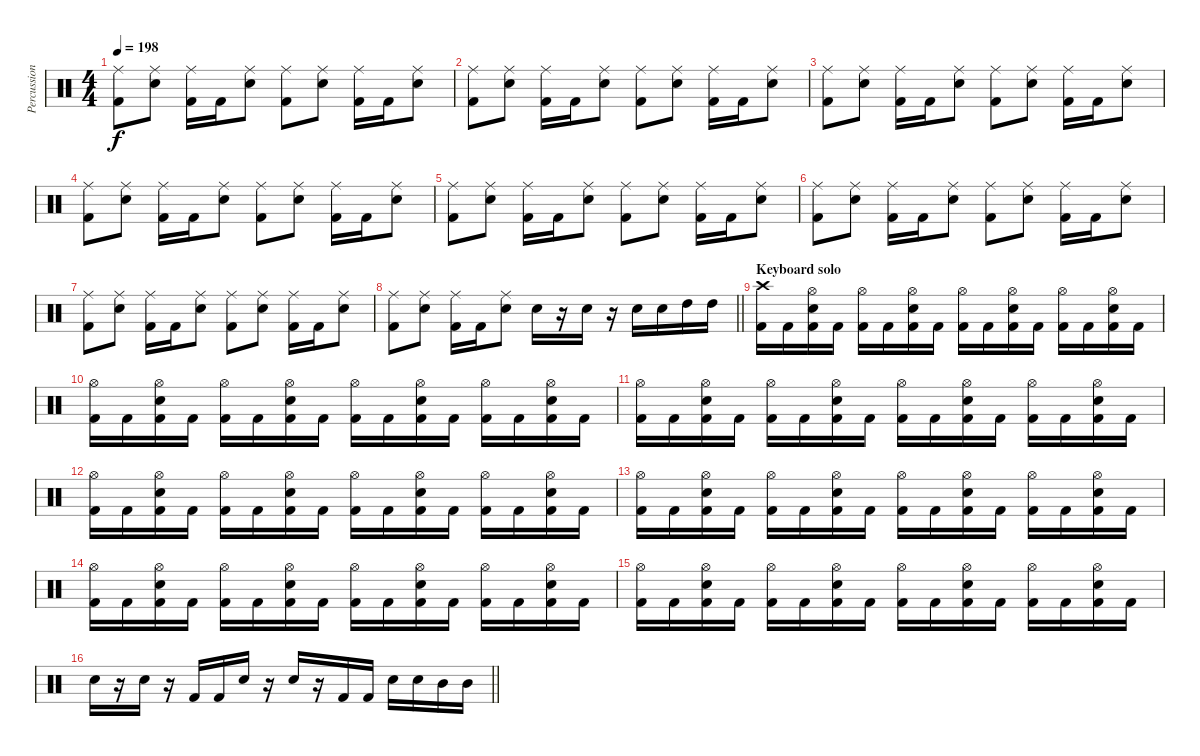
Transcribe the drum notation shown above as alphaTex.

\track ("Percussion" "Percussion") {instrument percussion}
\staff {score}
\articulation defaults
\ts (4 4)
\tempo 198
\clef neutral
\ks c
("Ride (middle)" "Kick (hit) 2").8{dy f} ("Ride (middle)" "Electric Snare (hit)").8 ("Ride (middle)" "Kick (hit) 2").16 "Kick (hit) 2".16 ("Ride (middle)" "Electric Snare (hit)").8 ("Ride (middle)" "Kick (hit) 2").8 ("Ride (middle)" "Electric Snare (hit)").8 ("Ride (middle)" "Kick (hit) 2").16 "Kick (hit) 2".16 ("Ride (middle)" "Electric Snare (hit)").8 |
("Ride (middle)" "Kick (hit) 2").8 ("Ride (middle)" "Electric Snare (hit)").8 ("Ride (middle)" "Kick (hit) 2").16 "Kick (hit) 2".16 ("Ride (middle)" "Electric Snare (hit)").8 ("Ride (middle)" "Kick (hit) 2").8 ("Ride (middle)" "Electric Snare (hit)").8 ("Ride (middle)" "Kick (hit) 2").16 "Kick (hit) 2".16 ("Ride (middle)" "Electric Snare (hit)").8 |
("Ride (middle)" "Kick (hit) 2").8 ("Ride (middle)" "Electric Snare (hit)").8 ("Ride (middle)" "Kick (hit) 2").16 "Kick (hit) 2".16 ("Ride (middle)" "Electric Snare (hit)").8 ("Ride (middle)" "Kick (hit) 2").8 ("Ride (middle)" "Electric Snare (hit)").8 ("Ride (middle)" "Kick (hit) 2").16 "Kick (hit) 2".16 ("Ride (middle)" "Electric Snare (hit)").8 |
("Ride (middle)" "Kick (hit) 2").8 ("Ride (middle)" "Electric Snare (hit)").8 ("Ride (middle)" "Kick (hit) 2").16 "Kick (hit) 2".16 ("Ride (middle)" "Electric Snare (hit)").8 ("Ride (middle)" "Kick (hit) 2").8 ("Ride (middle)" "Electric Snare (hit)").8 ("Ride (middle)" "Kick (hit) 2").16 "Kick (hit) 2".16 ("Ride (middle)" "Electric Snare (hit)").8 |
("Ride (middle)" "Kick (hit) 2").8 ("Ride (middle)" "Electric Snare (hit)").8 ("Ride (middle)" "Kick (hit) 2").16 "Kick (hit) 2".16 ("Ride (middle)" "Electric Snare (hit)").8 ("Ride (middle)" "Kick (hit) 2").8 ("Ride (middle)" "Electric Snare (hit)").8 ("Ride (middle)" "Kick (hit) 2").16 "Kick (hit) 2".16 ("Ride (middle)" "Electric Snare (hit)").8 |
("Ride (middle)" "Kick (hit) 2").8 ("Ride (middle)" "Electric Snare (hit)").8 ("Ride (middle)" "Kick (hit) 2").16 "Kick (hit) 2".16 ("Ride (middle)" "Electric Snare (hit)").8 ("Ride (middle)" "Kick (hit) 2").8 ("Ride (middle)" "Electric Snare (hit)").8 ("Ride (middle)" "Kick (hit) 2").16 "Kick (hit) 2".16 ("Ride (middle)" "Electric Snare (hit)").8 |
("Ride (middle)" "Kick (hit) 2").8 ("Ride (middle)" "Electric Snare (hit)").8 ("Ride (middle)" "Kick (hit) 2").16 "Kick (hit) 2".16 ("Ride (middle)" "Electric Snare (hit)").8 ("Ride (middle)" "Kick (hit) 2").8 ("Ride (middle)" "Electric Snare (hit)").8 ("Ride (middle)" "Kick (hit) 2").16 "Kick (hit) 2".16 ("Ride (middle)" "Electric Snare (hit)").8 |
\barLineRight lightlight
("Ride (middle)" "Kick (hit) 2").8 ("Ride (middle)" "Electric Snare (hit)").8 ("Ride (middle)" "Kick (hit) 2").16 "Kick (hit) 2".16 ("Ride (middle)" "Electric Snare (hit)").8 "Electric Snare (hit)".16 r.16 "Electric Snare (hit)".16 r.16 "Electric Snare (hit)".16 "Electric Snare (hit)".16 "High Tom (hit)".16 "High Tom (hit)".16 |
\section ("" "Keyboard solo")
("Crash high (hit)" "Kick (hit) 2").16 "Kick (hit) 2".16 ("Hi-Hat (open)" "Electric Snare (hit)" "Kick (hit) 2").16 "Kick (hit) 2".16 ("Hi-Hat (open)" "Kick (hit) 2").16 "Kick (hit) 2".16 ("Hi-Hat (open)" "Electric Snare (hit)" "Kick (hit) 2").16 "Kick (hit) 2".16 ("Hi-Hat (open)" "Kick (hit) 2").16 "Kick (hit) 2".16 ("Hi-Hat (open)" "Electric Snare (hit)" "Kick (hit) 2").16 "Kick (hit) 2".16 ("Hi-Hat (open)" "Kick (hit) 2").16 "Kick (hit) 2".16 ("Hi-Hat (open)" "Electric Snare (hit)" "Kick (hit) 2").16 "Kick (hit) 2".16 |
("Hi-Hat (open)" "Kick (hit) 2").16 "Kick (hit) 2".16 ("Hi-Hat (open)" "Electric Snare (hit)" "Kick (hit) 2").16 "Kick (hit) 2".16 ("Hi-Hat (open)" "Kick (hit) 2").16 "Kick (hit) 2".16 ("Hi-Hat (open)" "Electric Snare (hit)" "Kick (hit) 2").16 "Kick (hit) 2".16 ("Hi-Hat (open)" "Kick (hit) 2").16 "Kick (hit) 2".16 ("Hi-Hat (open)" "Electric Snare (hit)" "Kick (hit) 2").16 "Kick (hit) 2".16 ("Hi-Hat (open)" "Kick (hit) 2").16 "Kick (hit) 2".16 ("Hi-Hat (open)" "Electric Snare (hit)" "Kick (hit) 2").16 "Kick (hit) 2".16 |
("Hi-Hat (open)" "Kick (hit) 2").16 "Kick (hit) 2".16 ("Hi-Hat (open)" "Electric Snare (hit)" "Kick (hit) 2").16 "Kick (hit) 2".16 ("Hi-Hat (open)" "Kick (hit) 2").16 "Kick (hit) 2".16 ("Hi-Hat (open)" "Electric Snare (hit)" "Kick (hit) 2").16 "Kick (hit) 2".16 ("Hi-Hat (open)" "Kick (hit) 2").16 "Kick (hit) 2".16 ("Hi-Hat (open)" "Electric Snare (hit)" "Kick (hit) 2").16 "Kick (hit) 2".16 ("Hi-Hat (open)" "Kick (hit) 2").16 "Kick (hit) 2".16 ("Hi-Hat (open)" "Electric Snare (hit)" "Kick (hit) 2").16 "Kick (hit) 2".16 |
("Hi-Hat (open)" "Kick (hit) 2").16 "Kick (hit) 2".16 ("Hi-Hat (open)" "Electric Snare (hit)" "Kick (hit) 2").16 "Kick (hit) 2".16 ("Hi-Hat (open)" "Kick (hit) 2").16 "Kick (hit) 2".16 ("Hi-Hat (open)" "Electric Snare (hit)" "Kick (hit) 2").16 "Kick (hit) 2".16 ("Hi-Hat (open)" "Kick (hit) 2").16 "Kick (hit) 2".16 ("Hi-Hat (open)" "Electric Snare (hit)" "Kick (hit) 2").16 "Kick (hit) 2".16 ("Hi-Hat (open)" "Kick (hit) 2").16 "Kick (hit) 2".16 ("Hi-Hat (open)" "Electric Snare (hit)" "Kick (hit) 2").16 "Kick (hit) 2".16 |
("Hi-Hat (open)" "Kick (hit) 2").16 "Kick (hit) 2".16 ("Hi-Hat (open)" "Electric Snare (hit)" "Kick (hit) 2").16 "Kick (hit) 2".16 ("Hi-Hat (open)" "Kick (hit) 2").16 "Kick (hit) 2".16 ("Hi-Hat (open)" "Electric Snare (hit)" "Kick (hit) 2").16 "Kick (hit) 2".16 ("Hi-Hat (open)" "Kick (hit) 2").16 "Kick (hit) 2".16 ("Hi-Hat (open)" "Electric Snare (hit)" "Kick (hit) 2").16 "Kick (hit) 2".16 ("Hi-Hat (open)" "Kick (hit) 2").16 "Kick (hit) 2".16 ("Hi-Hat (open)" "Electric Snare (hit)" "Kick (hit) 2").16 "Kick (hit) 2".16 |
("Hi-Hat (open)" "Kick (hit) 2").16 "Kick (hit) 2".16 ("Hi-Hat (open)" "Electric Snare (hit)" "Kick (hit) 2").16 "Kick (hit) 2".16 ("Hi-Hat (open)" "Kick (hit) 2").16 "Kick (hit) 2".16 ("Hi-Hat (open)" "Electric Snare (hit)" "Kick (hit) 2").16 "Kick (hit) 2".16 ("Hi-Hat (open)" "Kick (hit) 2").16 "Kick (hit) 2".16 ("Hi-Hat (open)" "Electric Snare (hit)" "Kick (hit) 2").16 "Kick (hit) 2".16 ("Hi-Hat (open)" "Kick (hit) 2").16 "Kick (hit) 2".16 ("Hi-Hat (open)" "Electric Snare (hit)" "Kick (hit) 2").16 "Kick (hit) 2".16 |
("Hi-Hat (open)" "Kick (hit) 2").16 "Kick (hit) 2".16 ("Hi-Hat (open)" "Electric Snare (hit)" "Kick (hit) 2").16 "Kick (hit) 2".16 ("Hi-Hat (open)" "Kick (hit) 2").16 "Kick (hit) 2".16 ("Hi-Hat (open)" "Electric Snare (hit)" "Kick (hit) 2").16 "Kick (hit) 2".16 ("Hi-Hat (open)" "Kick (hit) 2").16 "Kick (hit) 2".16 ("Hi-Hat (open)" "Electric Snare (hit)" "Kick (hit) 2").16 "Kick (hit) 2".16 ("Hi-Hat (open)" "Kick (hit) 2").16 "Kick (hit) 2".16 ("Hi-Hat (open)" "Electric Snare (hit)" "Kick (hit) 2").16 "Kick (hit) 2".16 |
\barLineRight lightlight "Electric Snare (hit)".16
r.16 "Electric Snare (hit)".16 r.16 "Kick (hit) 2".16 "Kick (hit) 2".16 "Electric Snare (hit)".16 r.16 "Electric Snare (hit)".16 r.16 "Kick (hit) 2".16 "Kick (hit) 2".16 "Electric Snare (hit)".16 "Electric Snare (hit)".16 "Mid Tom (hit)".16 "Mid Tom (hit)".16
